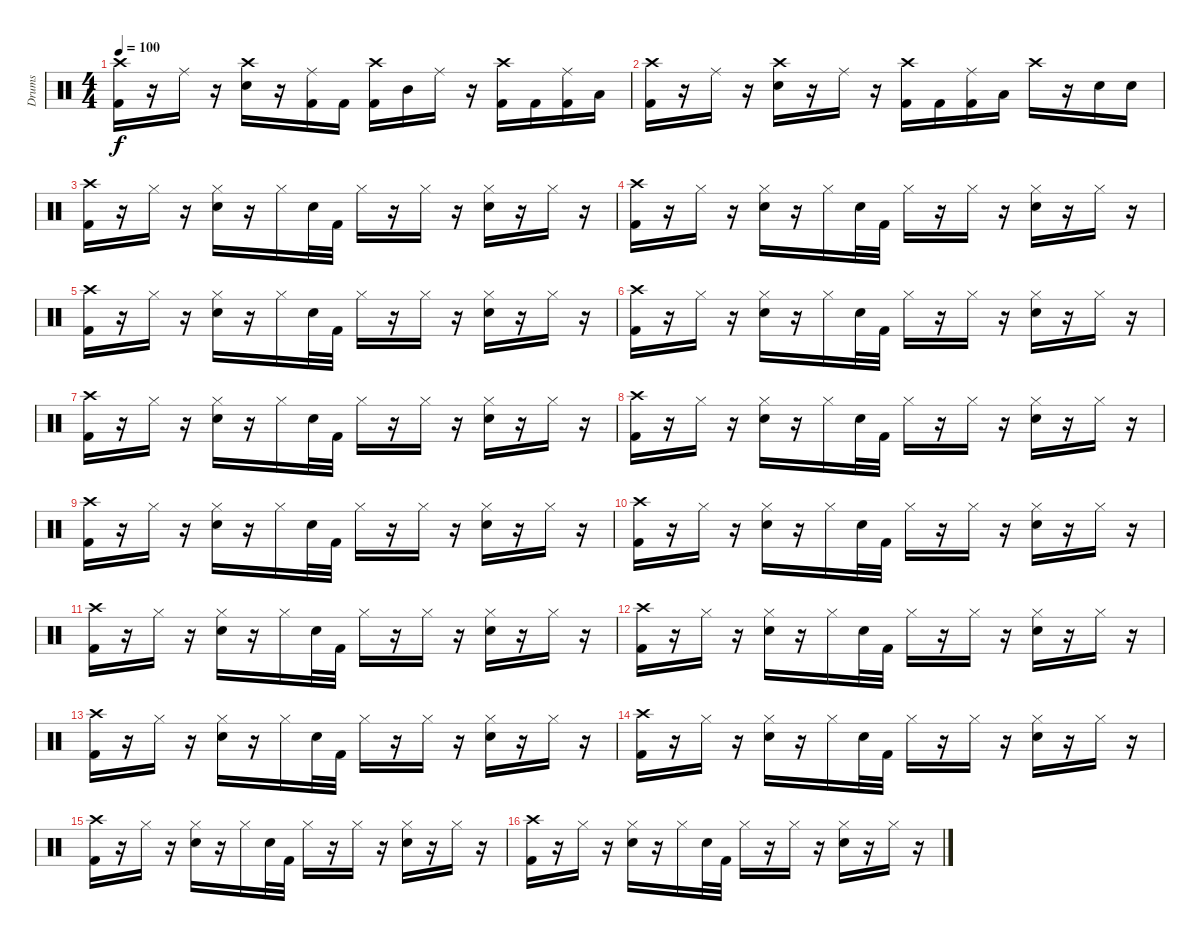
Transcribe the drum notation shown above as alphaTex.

\track ("Drums" "Drums") {instrument percussion}
\staff {score}
\articulation defaults
\ts (4 4)
\tempo 100
\clef neutral
\ks c
("Crash high (hit)" "Kick (hit) 2").16{dy f} r.16 "Ride (middle)".16 r.16 ("Crash high (hit)" "Snare (hit) 2").16 r.16 ("Ride (middle)" "Kick (hit) 2").16 "Kick (hit) 2".16 ("Crash high (hit)" "Kick (hit) 2").16 "Mid Tom (hit)".16 "Ride (middle)".16 r.16 ("Crash high (hit)" "Kick (hit) 2").16 "Kick (hit) 2".16 ("Ride (middle)" "Kick (hit) 2").16 "Low Tom (hit)".16 |
("Crash high (hit)" "Kick (hit) 2").16 r.16 "Ride (middle)".16 r.16 ("Crash high (hit)" "Snare (hit) 2").16 r.16 "Ride (middle)".16 r.16 ("Crash high (hit)" "Kick (hit) 2").16 "Kick (hit) 2".16 ("Ride (middle)" "Kick (hit) 2").16 "Low Tom (hit)".16 "Crash high (hit)".16 r.16 "Snare (hit) 2".16 "Snare (hit) 2".16 |
("Crash high (hit)" "Kick (hit) 2").16 r.16 "Hi-Hat (closed)".16 r.16 ("Hi-Hat (closed)" "Snare (hit) 2").16 r.16 "Hi-Hat (closed)".16 "Snare (hit) 2".32 "Kick (hit) 2".32 "Hi-Hat (closed)".16 r.16 "Hi-Hat (closed)".16 r.16 ("Hi-Hat (closed)" "Snare (hit) 2").16 r.16 "Hi-Hat (closed)".16 r.16 |
("Crash high (hit)" "Kick (hit) 2").16 r.16 "Hi-Hat (closed)".16 r.16 ("Hi-Hat (closed)" "Snare (hit) 2").16 r.16 "Hi-Hat (closed)".16 "Snare (hit) 2".32 "Kick (hit) 2".32 "Hi-Hat (closed)".16 r.16 "Hi-Hat (closed)".16 r.16 ("Hi-Hat (closed)" "Snare (hit) 2").16 r.16 "Hi-Hat (closed)".16 r.16 |
("Crash high (hit)" "Kick (hit) 2").16 r.16 "Hi-Hat (closed)".16 r.16 ("Hi-Hat (closed)" "Snare (hit) 2").16 r.16 "Hi-Hat (closed)".16 "Snare (hit) 2".32 "Kick (hit) 2".32 "Hi-Hat (closed)".16 r.16 "Hi-Hat (closed)".16 r.16 ("Hi-Hat (closed)" "Snare (hit) 2").16 r.16 "Hi-Hat (closed)".16 r.16 |
("Crash high (hit)" "Kick (hit) 2").16 r.16 "Hi-Hat (closed)".16 r.16 ("Hi-Hat (closed)" "Snare (hit) 2").16 r.16 "Hi-Hat (closed)".16 "Snare (hit) 2".32 "Kick (hit) 2".32 "Hi-Hat (closed)".16 r.16 "Hi-Hat (closed)".16 r.16 ("Hi-Hat (closed)" "Snare (hit) 2").16 r.16 "Hi-Hat (closed)".16 r.16 |
("Crash high (hit)" "Kick (hit) 2").16 r.16 "Hi-Hat (closed)".16 r.16 ("Hi-Hat (closed)" "Snare (hit) 2").16 r.16 "Hi-Hat (closed)".16 "Snare (hit) 2".32 "Kick (hit) 2".32 "Hi-Hat (closed)".16 r.16 "Hi-Hat (closed)".16 r.16 ("Hi-Hat (closed)" "Snare (hit) 2").16 r.16 "Hi-Hat (closed)".16 r.16 |
("Crash high (hit)" "Kick (hit) 2").16 r.16 "Hi-Hat (closed)".16 r.16 ("Hi-Hat (closed)" "Snare (hit) 2").16 r.16 "Hi-Hat (closed)".16 "Snare (hit) 2".32 "Kick (hit) 2".32 "Hi-Hat (closed)".16 r.16 "Hi-Hat (closed)".16 r.16 ("Hi-Hat (closed)" "Snare (hit) 2").16 r.16 "Hi-Hat (closed)".16 r.16 |
("Crash high (hit)" "Kick (hit) 2").16 r.16 "Hi-Hat (closed)".16 r.16 ("Hi-Hat (closed)" "Snare (hit) 2").16 r.16 "Hi-Hat (closed)".16 "Snare (hit) 2".32 "Kick (hit) 2".32 "Hi-Hat (closed)".16 r.16 "Hi-Hat (closed)".16 r.16 ("Hi-Hat (closed)" "Snare (hit) 2").16 r.16 "Hi-Hat (closed)".16 r.16 |
("Crash high (hit)" "Kick (hit) 2").16 r.16 "Hi-Hat (closed)".16 r.16 ("Hi-Hat (closed)" "Snare (hit) 2").16 r.16 "Hi-Hat (closed)".16 "Snare (hit) 2".32 "Kick (hit) 2".32 "Hi-Hat (closed)".16 r.16 "Hi-Hat (closed)".16 r.16 ("Hi-Hat (closed)" "Snare (hit) 2").16 r.16 "Hi-Hat (closed)".16 r.16 |
("Crash high (hit)" "Kick (hit) 2").16 r.16 "Hi-Hat (closed)".16 r.16 ("Hi-Hat (closed)" "Snare (hit) 2").16 r.16 "Hi-Hat (closed)".16 "Snare (hit) 2".32 "Kick (hit) 2".32 "Hi-Hat (closed)".16 r.16 "Hi-Hat (closed)".16 r.16 ("Hi-Hat (closed)" "Snare (hit) 2").16 r.16 "Hi-Hat (closed)".16 r.16 |
("Crash high (hit)" "Kick (hit) 2").16 r.16 "Hi-Hat (closed)".16 r.16 ("Hi-Hat (closed)" "Snare (hit) 2").16 r.16 "Hi-Hat (closed)".16 "Snare (hit) 2".32 "Kick (hit) 2".32 "Hi-Hat (closed)".16 r.16 "Hi-Hat (closed)".16 r.16 ("Hi-Hat (closed)" "Snare (hit) 2").16 r.16 "Hi-Hat (closed)".16 r.16 |
("Crash high (hit)" "Kick (hit) 2").16 r.16 "Hi-Hat (closed)".16 r.16 ("Hi-Hat (closed)" "Snare (hit) 2").16 r.16 "Hi-Hat (closed)".16 "Snare (hit) 2".32 "Kick (hit) 2".32 "Hi-Hat (closed)".16 r.16 "Hi-Hat (closed)".16 r.16 ("Hi-Hat (closed)" "Snare (hit) 2").16 r.16 "Hi-Hat (closed)".16 r.16 |
("Crash high (hit)" "Kick (hit) 2").16 r.16 "Hi-Hat (closed)".16 r.16 ("Hi-Hat (closed)" "Snare (hit) 2").16 r.16 "Hi-Hat (closed)".16 "Snare (hit) 2".32 "Kick (hit) 2".32 "Hi-Hat (closed)".16 r.16 "Hi-Hat (closed)".16 r.16 ("Hi-Hat (closed)" "Snare (hit) 2").16 r.16 "Hi-Hat (closed)".16 r.16 |
("Crash high (hit)" "Kick (hit) 2").16 r.16 "Hi-Hat (closed)".16 r.16 ("Hi-Hat (closed)" "Snare (hit) 2").16 r.16 "Hi-Hat (closed)".16 "Snare (hit) 2".32 "Kick (hit) 2".32 "Hi-Hat (closed)".16 r.16 "Hi-Hat (closed)".16 r.16 ("Hi-Hat (closed)" "Snare (hit) 2").16 r.16 "Hi-Hat (closed)".16 r.16 |
("Crash high (hit)" "Kick (hit) 2").16 r.16 "Hi-Hat (closed)".16 r.16 ("Hi-Hat (closed)" "Snare (hit) 2").16 r.16 "Hi-Hat (closed)".16 "Snare (hit) 2".32 "Kick (hit) 2".32 "Hi-Hat (closed)".16 r.16 "Hi-Hat (closed)".16 r.16 ("Hi-Hat (closed)" "Snare (hit) 2").16 r.16 "Hi-Hat (closed)".16 r.16
